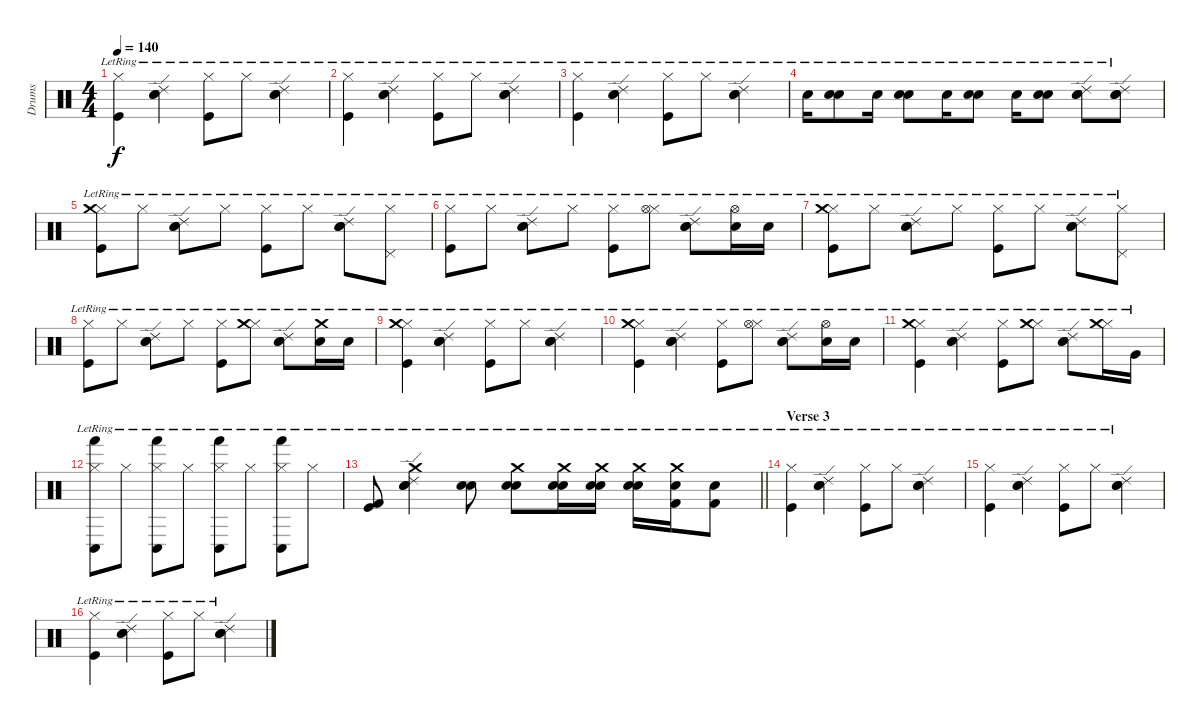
\track ("Drums" "Drums") {instrument percussion}
\staff {score}
\articulation defaults
\ts (4 4)
\tempo 140
\clef neutral
\ks c
("Hi-Hat (closed)"{lr} "Kick (hit)"{lr}).4{dy f} ("Electric Snare (hit)"{lr} "Ride (edge) 2"{lr} "Snare (hit) 2"{lr}).4 ("Hi-Hat (closed)"{lr} "Kick (hit)"{lr}).8 "Hi-Hat (closed)"{lr}.8 ("Electric Snare (hit)"{lr} "Ride (edge) 2"{lr} "Snare (hit) 2"{lr}).4 |
("Hi-Hat (closed)"{lr} "Kick (hit)"{lr}).4 ("Electric Snare (hit)"{lr} "Ride (edge) 2"{lr} "Snare (hit) 2"{lr}).4 ("Hi-Hat (closed)"{lr} "Kick (hit)"{lr}).8 "Hi-Hat (closed)"{lr}.8 ("Electric Snare (hit)"{lr} "Ride (edge) 2"{lr} "Snare (hit) 2"{lr}).4 |
("Hi-Hat (closed)"{lr} "Kick (hit)"{lr}).4 ("Electric Snare (hit)"{lr} "Ride (edge) 2"{lr} "Snare (hit) 2"{lr}).4 ("Hi-Hat (closed)"{lr} "Kick (hit)"{lr}).8 "Hi-Hat (closed)"{lr}.8 ("Electric Snare (hit)"{lr} "Ride (edge) 2"{lr} "Snare (hit) 2"{lr}).4 |
"Snare (hit) 2"{lr}.16 ("Snare (hit) 2"{lr} "Electric Snare (hit)"{lr}).8 "Snare (hit) 2"{lr}.16 ("Snare (hit) 2"{lr} "Electric Snare (hit)"{lr}).8 "Snare (hit) 2"{lr}.16 ("Snare (hit) 2"{lr} "Electric Snare (hit)"{lr}).8 "Snare (hit) 2"{lr}.16 ("Snare (hit) 2"{lr} "Electric Snare (hit)"{lr}).8 ("Snare (hit) 2"{lr} "Electric Snare (hit)"{lr} "Ride (edge) 2"{lr}).8 ("Snare (hit) 2"{lr} "Electric Snare (hit)"{lr} "Ride (edge) 2"{lr}).8 |
("Hi-Hat (closed)"{lr} "Crash medium (hit)"{lr} "Kick (hit)"{lr}).8 "Hi-Hat (closed)"{lr}.8 ("Electric Snare (hit)"{lr} "Ride (edge) 2"{lr} "Snare (hit) 2"{lr}).8 "Hi-Hat (closed)"{lr}.8 ("Hi-Hat (closed)"{lr} "Kick (hit)"{lr}).8 "Hi-Hat (closed)"{lr}.8 ("Electric Snare (hit)"{lr} "Ride (edge) 2"{lr} "Snare (hit) 2"{lr}).8 ("Hi-Hat (closed)"{lr} "Pedal Hi-Hat (hit)"{lr}).8 |
("Hi-Hat (closed)"{lr} "Kick (hit)"{lr}).8 "Hi-Hat (closed)"{lr}.8 ("Electric Snare (hit)"{lr} "Ride (edge) 2"{lr} "Snare (hit) 2"{lr}).8 "Hi-Hat (closed)"{lr}.8 ("Hi-Hat (closed)"{lr} "Kick (hit)"{lr}).8 ("Hi-Hat (closed)"{lr} "Hi-Hat (open)"{lr}).8 ("Electric Snare (hit)"{lr} "Ride (edge) 2"{lr} "Snare (hit) 2"{lr}).8 ("Hi-Hat (open)"{lr} "Snare (hit) 2"{lr}).16 "Snare (hit) 2"{lr}.16 |
("Hi-Hat (closed)"{lr} "Crash medium (hit)"{lr} "Kick (hit)"{lr}).8 "Hi-Hat (closed)"{lr}.8 ("Electric Snare (hit)"{lr} "Ride (edge) 2"{lr} "Snare (hit) 2"{lr}).8 "Hi-Hat (closed)"{lr}.8 ("Hi-Hat (closed)"{lr} "Kick (hit)"{lr}).8 "Hi-Hat (closed)"{lr}.8 ("Electric Snare (hit)"{lr} "Ride (edge) 2"{lr} "Snare (hit) 2"{lr}).8 ("Hi-Hat (closed)"{lr} "Pedal Hi-Hat (hit)"{lr}).8 |
("Hi-Hat (closed)"{lr} "Kick (hit)"{lr}).8 "Hi-Hat (closed)"{lr}.8 ("Electric Snare (hit)"{lr} "Ride (edge) 2"{lr} "Snare (hit) 2"{lr}).8 "Hi-Hat (closed)"{lr}.8 ("Hi-Hat (closed)"{lr} "Kick (hit)"{lr}).8 ("Hi-Hat (closed)"{lr} "Crash medium (hit)"{lr}).8 ("Electric Snare (hit)"{lr} "Ride (edge) 2"{lr} "Snare (hit) 2"{lr}).8 ("Crash medium (hit)"{lr} "Snare (hit) 2"{lr}).16 "Snare (hit) 2"{lr}.16 |
("Hi-Hat (closed)"{lr} "Crash medium (hit)"{lr} "Kick (hit)"{lr}).4 ("Electric Snare (hit)"{lr} "Ride (edge) 2"{lr} "Snare (hit) 2"{lr}).4 ("Hi-Hat (closed)"{lr} "Kick (hit)"{lr}).8 "Hi-Hat (closed)"{lr}.8 ("Electric Snare (hit)"{lr} "Ride (edge) 2"{lr} "Snare (hit) 2"{lr}).4 |
("Hi-Hat (closed)"{lr} "Crash medium (hit)"{lr} "Kick (hit)"{lr}).4 ("Electric Snare (hit)"{lr} "Ride (edge) 2"{lr} "Snare (hit) 2"{lr}).4 ("Hi-Hat (closed)"{lr} "Kick (hit)"{lr}).8 ("Hi-Hat (closed)"{lr} "Hi-Hat (open)"{lr}).8 ("Electric Snare (hit)"{lr} "Ride (edge) 2"{lr} "Snare (hit) 2"{lr}).8 ("Hi-Hat (open)"{lr} "Snare (hit) 2"{lr}).16 "Snare (hit) 2"{lr}.16 |
("Hi-Hat (closed)"{lr} "Crash medium (hit)"{lr} "Kick (hit)"{lr}).4 ("Electric Snare (hit)"{lr} "Ride (edge) 2"{lr} "Snare (hit) 2"{lr}).4 ("Hi-Hat (closed)"{lr} "Kick (hit)"{lr}).8 ("Hi-Hat (closed)"{lr} "Crash medium (hit)"{lr}).8 ("Electric Snare (hit)"{lr} "Ride (edge) 2"{lr} "Snare (hit) 2"{lr}).8 ("Hi-Hat (closed)"{lr} "Crash medium (hit)"{lr}).16 "Very Low Tom (hit)"{lr}.16 |
("Hi-Hat (closed)"{lr} "Conga low (hit)"{lr} "Hand (hit)"{lr}).8 "Hi-Hat (closed)"{lr}.8 ("Hi-Hat (closed)"{lr} "Conga low (hit)"{lr} "Hand (hit)"{lr}).8 "Hi-Hat (closed)"{lr}.8 ("Hi-Hat (closed)"{lr} "Conga low (hit)"{lr} "Hand (hit)"{lr}).8 "Hi-Hat (closed)"{lr}.8 ("Hi-Hat (closed)"{lr} "Conga low (hit)"{lr} "Hand (hit)"{lr}).8 "Hi-Hat (closed)"{lr}.8 |
\barLineRight lightlight
("Kick (hit) 2"{lr} "Kick (hit)"{lr}).8 ("Snare (hit) 2"{lr} "Electric Snare (hit)"{lr} "Ride (edge) 2"{lr} "Crash medium (hit)"{lr}).4 ("Snare (hit) 2"{lr} "Electric Snare (hit)"{lr}).8 ("Snare (hit) 2"{lr} "Electric Snare (hit)"{lr} "Crash medium (hit)"{lr}).8 ("Snare (hit) 2"{lr} "Electric Snare (hit)"{lr} "Crash medium (hit)"{lr}).16 ("Snare (hit) 2"{lr} "Electric Snare (hit)"{lr} "Crash medium (hit)"{lr}).16 ("Snare (hit) 2"{lr} "Electric Snare (hit)"{lr} "Crash medium (hit)"{lr}).16 ("Kick (hit) 2"{lr} "Electric Snare (hit)"{lr} "Crash medium (hit)"{lr}).16 ("Kick (hit) 2"{lr} "Electric Snare (hit)"{lr}).8 |
\section ("" "Verse 3")
("Hi-Hat (closed)"{lr} "Kick (hit)"{lr}).4 ("Electric Snare (hit)"{lr} "Ride (edge) 2"{lr} "Snare (hit) 2"{lr}).4 ("Hi-Hat (closed)"{lr} "Kick (hit)"{lr}).8 "Hi-Hat (closed)"{lr}.8 ("Electric Snare (hit)"{lr} "Ride (edge) 2"{lr} "Snare (hit) 2"{lr}).4 |
("Hi-Hat (closed)"{lr} "Kick (hit)"{lr}).4 ("Electric Snare (hit)"{lr} "Ride (edge) 2"{lr} "Snare (hit) 2"{lr}).4 ("Hi-Hat (closed)"{lr} "Kick (hit)"{lr}).8 "Hi-Hat (closed)"{lr}.8 ("Electric Snare (hit)"{lr} "Ride (edge) 2"{lr} "Snare (hit) 2"{lr}).4 |
("Hi-Hat (closed)"{lr} "Kick (hit)"{lr}).4 ("Electric Snare (hit)"{lr} "Ride (edge) 2"{lr} "Snare (hit) 2"{lr}).4 ("Hi-Hat (closed)"{lr} "Kick (hit)"{lr}).8 "Hi-Hat (closed)"{lr}.8 ("Electric Snare (hit)"{lr} "Ride (edge) 2"{lr} "Snare (hit) 2"{lr}).4
